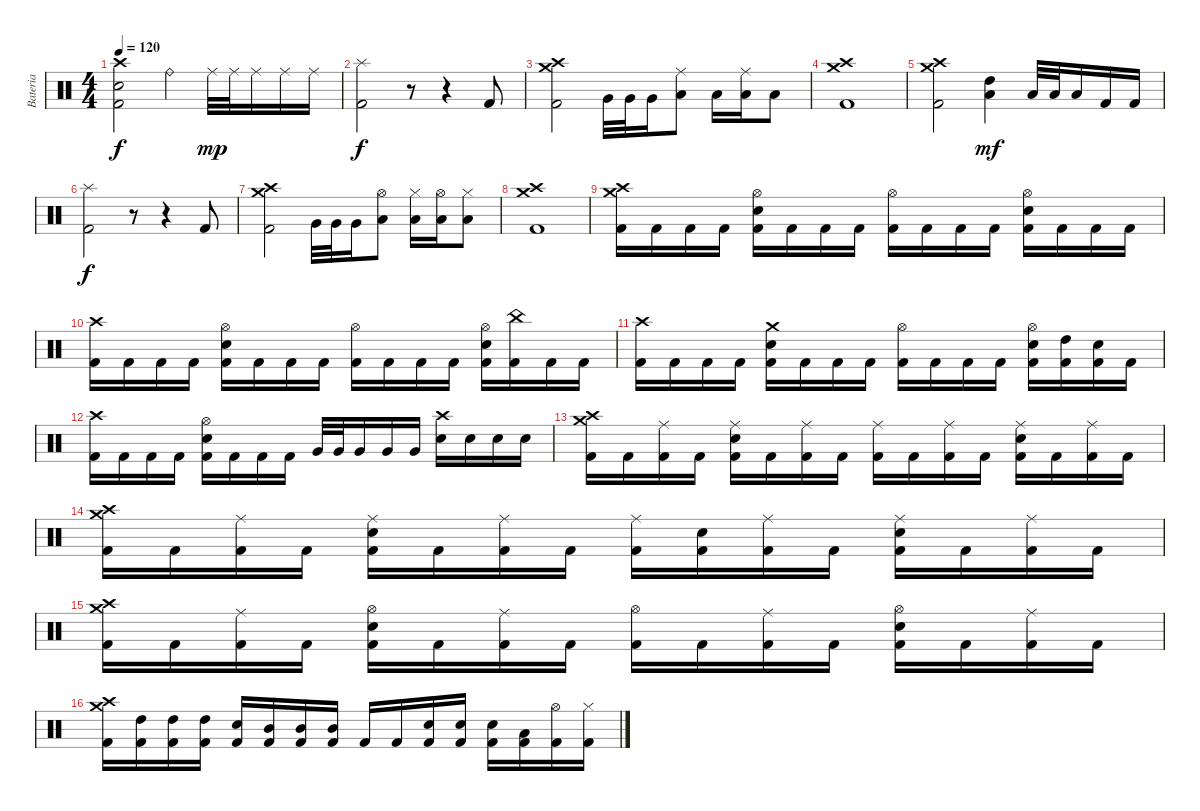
\track ("Bateria" "Bateria") {instrument percussion}
\staff {score}
\articulation defaults
\ts (4 4)
\tempo 120
\clef neutral
\ks c
("Crash high (hit)" "Electric Snare (hit)" "Kick (hit) 2").2{dy f} "Ride (bell)".4 "Ride (middle)".32{dy mp} "Ride (middle)".32 "Ride (middle)".16 "Ride (middle)".16 "Ride (middle)".16 |
("Splash (hit)" "Kick (hit) 2").2{dy f} r.8 r.4 "Kick (hit) 2".8 |
("Crash medium (hit)" "Crash high (hit)" "Kick (hit) 2").2 "Very Low Tom (hit)".32 "Very Low Tom (hit)".32 "Very Low Tom (hit)".16 ("Ride (middle)" "Low Floor Tom (hit)").8 "Low Floor Tom (hit)".16 ("Ride (middle)" "Low Floor Tom (hit)").16 "Low Floor Tom (hit)".8 |
("Crash medium (hit)" "Crash high (hit)" "Kick (hit) 2").1 |
("Crash medium (hit)" "Crash high (hit)" "Kick (hit) 2").2 ("High Tom (hit)" "Low Floor Tom (hit)").4{dy mf} "Low Tom (hit)".32 "Low Tom (hit)".32 "Low Tom (hit)".16 "Kick (hit) 2".16 "Kick (hit) 2".16 |
("Splash (hit)" "Kick (hit) 2").2{dy f} r.8 r.4 "Kick (hit) 2".8 |
("Crash medium (hit)" "Crash high (hit)" "Kick (hit) 2").2 "Very Low Tom (hit)".32 "Very Low Tom (hit)".32 "Very Low Tom (hit)".16 ("Hi-Hat (open)" "Low Floor Tom (hit)").8 ("Hi-Hat (closed)" "Low Floor Tom (hit)").16 ("Hi-Hat (open)" "Low Floor Tom (hit)").16 ("Hi-Hat (closed)" "Low Floor Tom (hit)").8 |
("Crash medium (hit)" "Crash high (hit)" "Kick (hit) 2").1 |
("Crash medium (hit)" "Crash high (hit)" "Kick (hit) 2").16 "Kick (hit) 2".16 "Kick (hit) 2".16 "Kick (hit) 2".16 ("Hi-Hat (open)" "Electric Snare (hit)" "Kick (hit) 2").16 "Kick (hit) 2".16 "Kick (hit) 2".16 "Kick (hit) 2".16 ("Hi-Hat (open)" "Kick (hit) 2").16 "Kick (hit) 2".16 "Kick (hit) 2".16 "Kick (hit) 2".16 ("Hi-Hat (open)" "Electric Snare (hit)" "Kick (hit) 2").16 "Kick (hit) 2".16 "Kick (hit) 2".16 "Kick (hit) 2".16 |
("Crash high (hit)" "Kick (hit) 2").16 "Kick (hit) 2".16 "Kick (hit) 2".16 "Kick (hit) 2".16 ("Hi-Hat (open)" "Electric Snare (hit)" "Kick (hit) 2").16 "Kick (hit) 2".16 "Kick (hit) 2".16 "Kick (hit) 2".16 ("Hi-Hat (open)" "Kick (hit) 2").16 "Kick (hit) 2".16 "Kick (hit) 2".16 "Kick (hit) 2".16 ("Hi-Hat (open)" "Electric Snare (hit)" "Kick (hit) 2").16 ("China (hit)" "Kick (hit) 2").16 "Kick (hit) 2".16 "Kick (hit) 2".16 |
("Crash high (hit)" "Kick (hit) 2").16 "Kick (hit) 2".16 "Kick (hit) 2".16 "Kick (hit) 2".16 ("Crash medium (hit)" "Electric Snare (hit)" "Kick (hit) 2").16 "Kick (hit) 2".16 "Kick (hit) 2".16 "Kick (hit) 2".16 ("Hi-Hat (open)" "Kick (hit) 2").16 "Kick (hit) 2".16 "Kick (hit) 2".16 "Kick (hit) 2".16 ("Hi-Hat (open)" "Electric Snare (hit)" "Kick (hit) 2").16 ("High Tom (hit)" "Kick (hit) 2").16 ("Electric Snare (hit)" "Kick (hit) 2").16 "Kick (hit) 2".16 |
("Crash high (hit)" "Kick (hit) 2").16 "Kick (hit) 2".16 "Kick (hit) 2".16 "Kick (hit) 2".16 ("Hi-Hat (open)" "Electric Snare (hit)" "Kick (hit) 2").16 "Kick (hit) 2".16 "Kick (hit) 2".16 "Kick (hit) 2".16 "Very Low Tom (hit)".32 "Very Low Tom (hit)".32 "Very Low Tom (hit)".16 "Very Low Tom (hit)".16 "Very Low Tom (hit)".16 ("Crash high (hit)" "Electric Snare (hit)").16 "Electric Snare (hit)".16 "Electric Snare (hit)".16 "Electric Snare (hit)".16 |
("Crash medium (hit)" "Crash high (hit)" "Kick (hit) 2").16 "Kick (hit) 2".16 ("Ride (middle)" "Kick (hit) 2").16 "Kick (hit) 2".16 ("Ride (middle)" "Electric Snare (hit)" "Kick (hit) 2").16 "Kick (hit) 2".16 ("Ride (middle)" "Kick (hit) 2").16 "Kick (hit) 2".16 ("Ride (middle)" "Kick (hit) 2").16 "Kick (hit) 2".16 ("Ride (middle)" "Kick (hit) 2").16 "Kick (hit) 2".16 ("Ride (middle)" "Electric Snare (hit)" "Kick (hit) 2").16 "Kick (hit) 2".16 ("Ride (middle)" "Kick (hit) 2").16 "Kick (hit) 2".16 |
("Crash medium (hit)" "Crash high (hit)" "Kick (hit) 2").16 "Kick (hit) 2".16 ("Ride (middle)" "Kick (hit) 2").16 "Kick (hit) 2".16 ("Ride (middle)" "Electric Snare (hit)" "Kick (hit) 2").16 "Kick (hit) 2".16 ("Ride (middle)" "Kick (hit) 2").16 "Kick (hit) 2".16 ("Ride (middle)" "Kick (hit) 2").16 ("Electric Snare (hit)" "Kick (hit) 2").16 ("Ride (middle)" "Kick (hit) 2").16 "Kick (hit) 2".16 ("Ride (middle)" "Electric Snare (hit)" "Kick (hit) 2").16 "Kick (hit) 2".16 ("Ride (middle)" "Kick (hit) 2").16 "Kick (hit) 2".16 |
("Crash medium (hit)" "Crash high (hit)" "Kick (hit) 2").16 "Kick (hit) 2".16 ("Ride (middle)" "Kick (hit) 2").16 "Kick (hit) 2".16 ("Hi-Hat (open)" "Electric Snare (hit)" "Kick (hit) 2").16 "Kick (hit) 2".16 ("Ride (middle)" "Kick (hit) 2").16 "Kick (hit) 2".16 ("Hi-Hat (open)" "Kick (hit) 2").16 "Kick (hit) 2".16 ("Ride (middle)" "Kick (hit) 2").16 "Kick (hit) 2".16 ("Hi-Hat (open)" "Electric Snare (hit)" "Kick (hit) 2").16 "Kick (hit) 2".16 ("Ride (middle)" "Kick (hit) 2").16 "Kick (hit) 2".16 |
("Crash medium (hit)" "Crash high (hit)" "Kick (hit) 2").16 ("High Tom (hit)" "Kick (hit) 2").16 ("High Tom (hit)" "Kick (hit) 2").16 ("High Tom (hit)" "Kick (hit) 2").16 ("Electric Snare (hit)" "Kick (hit) 2").16 ("Mid Tom (hit)" "Kick (hit) 2").16 ("Mid Tom (hit)" "Kick (hit) 2").16 ("Mid Tom (hit)" "Kick (hit) 2").16 "Kick (hit) 2".16 "Kick (hit) 2".16 ("Electric Snare (hit)" "Kick (hit) 2").16 ("Electric Snare (hit)" "Kick (hit) 2").16 ("Electric Snare (hit)" "Kick (hit) 2").16 ("Low Tom (hit)" "Kick (hit) 2").16 ("Hi-Hat (open)" "Kick (hit) 2").16 ("Hi-Hat (closed)" "Kick (hit) 2").16
